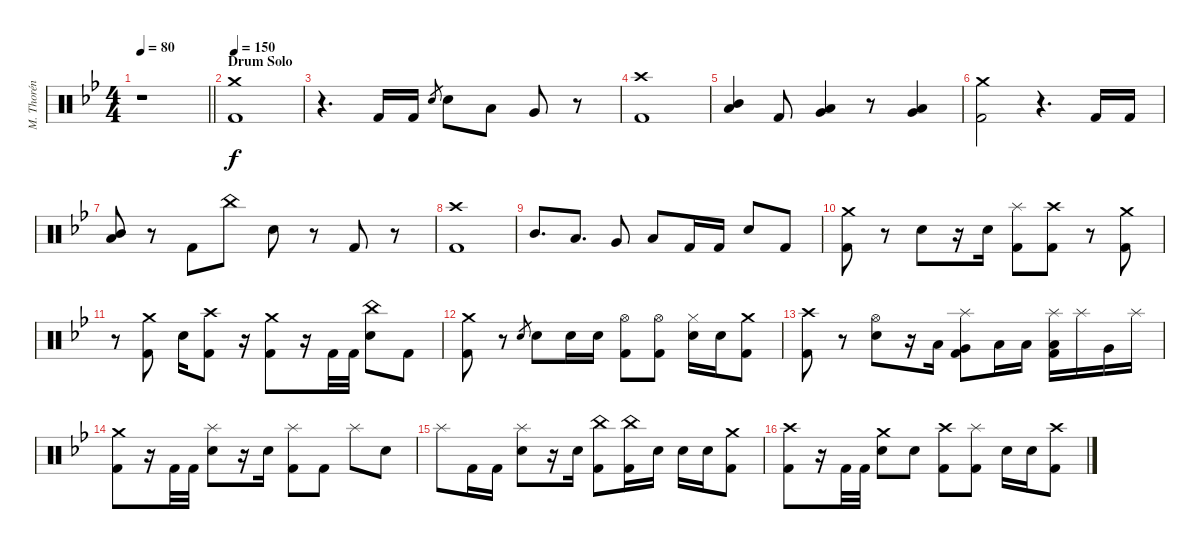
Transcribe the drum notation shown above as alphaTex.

\track ("M. Thorén (Drums)" "M. Thorén ") {instrument percussion}
\staff {score}
\articulation defaults
\ts (4 4)
\tempo 80
\clef neutral
\barLineRight lightlight
\ks gminor
r.1{dy f} |
\section ("" "Drum Solo")
\tempo 150
("Crash medium (hit)" "Kick (hit) 2").1 |
r.4{d} "Kick (hit) 2".16 "Kick (hit) 2".16 "Electric Snare (hit)".8{gr} "Electric Snare (hit)".8 "Low Tom (hit)".8 "Very Low Tom (hit)".8 r.8 |
("Crash high (hit)" "Kick (hit) 2").1 |
("Mid Tom (hit)" "Low Tom (hit)").4 "Kick (hit) 2".8 ("Low Tom (hit)" "Very Low Tom (hit)").4 r.8 ("Very Low Tom (hit)" "Low Floor Tom (hit)").4 |
("Crash medium (hit)" "Kick (hit) 2").2 r.4{d} "Kick (hit) 2".16 "Kick (hit) 2".16 |
("Mid Tom (hit)" "Low Tom (hit)").8 r.8 "Kick (hit) 2".8 "China (hit)".8 "Electric Snare (hit)".8 r.8 "Kick (hit) 2".8 r.8 |
("Crash high (hit)" "Kick (hit) 2").1 |
"Mid Tom (hit)".8{d} "Low Tom (hit)".8{d} "Very Low Tom (hit)".8 "Low Floor Tom (hit)".8 "Kick (hit) 2".16 "Kick (hit) 2".16 "Electric Snare (hit)".8 "Kick (hit) 2".8 |
("Crash medium (hit)" "Kick (hit) 2").8 r.8 "Electric Snare (hit)".8 r.16 "Electric Snare (hit)".16 ("Splash (hit)" "Kick (hit) 2").8 ("Crash high (hit)" "Kick (hit) 2").8 r.8 ("Crash medium (hit)" "Kick (hit) 2").8 |
r.8 ("Crash medium (hit)" "Kick (hit) 2").8 "Electric Snare (hit)".16 ("Crash high (hit)" "Kick (hit) 2").8 r.16 ("Crash medium (hit)" "Kick (hit) 2").8 r.16 "Kick (hit) 2".32 "Kick (hit) 2".32 ("China (hit)" "Electric Snare (hit)").8 "Kick (hit) 2".8 |
("Crash medium (hit)" "Kick (hit) 2").8 r.8 "Electric Snare (hit)".8{gr} "Electric Snare (hit)".8 "Electric Snare (hit)".16 "Electric Snare (hit)".16 ("Hi-Hat (open)" "Kick (hit) 2").8 ("Hi-Hat (open)" "Kick (hit) 2").8 ("Hi-Hat (closed)" "Electric Snare (hit)").16 "Electric Snare (hit)".16 ("Crash medium (hit)" "Kick (hit) 2").8 |
("Crash high (hit)" "Kick (hit) 2").8 r.8 ("Hi-Hat (open)" "Electric Snare (hit)").8 r.16 "Low Tom (hit)".16 ("Splash (hit)" "Very Low Tom (hit)" "Kick (hit) 2").8 "Low Tom (hit)".16 "Low Tom (hit)".16 ("Splash (hit)" "Low Tom (hit)" "Kick (hit) 2").16 "Splash (hit)".16 "Very Low Tom (hit)".16 "Splash (hit)".16 |
("Crash medium (hit)" "Kick (hit) 2").8 r.16 "Kick (hit) 2".32 "Kick (hit) 2".32 ("Splash (hit)" "Electric Snare (hit)").8 r.16 "Electric Snare (hit)".16 ("Splash (hit)" "Kick (hit) 2").8 "Kick (hit) 2".8 "Splash (hit)".8 "Electric Snare (hit)".8 |
"Splash (hit)".8 "Kick (hit) 2".16 "Kick (hit) 2".16 ("Splash (hit)" "Electric Snare (hit)").8 r.16 "Electric Snare (hit)".16 ("China (hit)" "Kick (hit) 2").8 ("China (hit)" "Kick (hit) 2").16 "Electric Snare (hit)".16 "Electric Snare (hit)".16 "Electric Snare (hit)".16 ("Crash medium (hit)" "Kick (hit) 2").8 |
("Crash high (hit)" "Kick (hit) 2").8 r.16 "Kick (hit) 2".32 "Kick (hit) 2".32 ("Crash medium (hit)" "Electric Snare (hit)").8 "Electric Snare (hit)".8 ("Crash high (hit)" "Kick (hit) 2").8 ("Splash (hit)" "Kick (hit) 2").8 "Electric Snare (hit)".16 "Electric Snare (hit)".16 ("Crash high (hit)" "Kick (hit) 2").8
